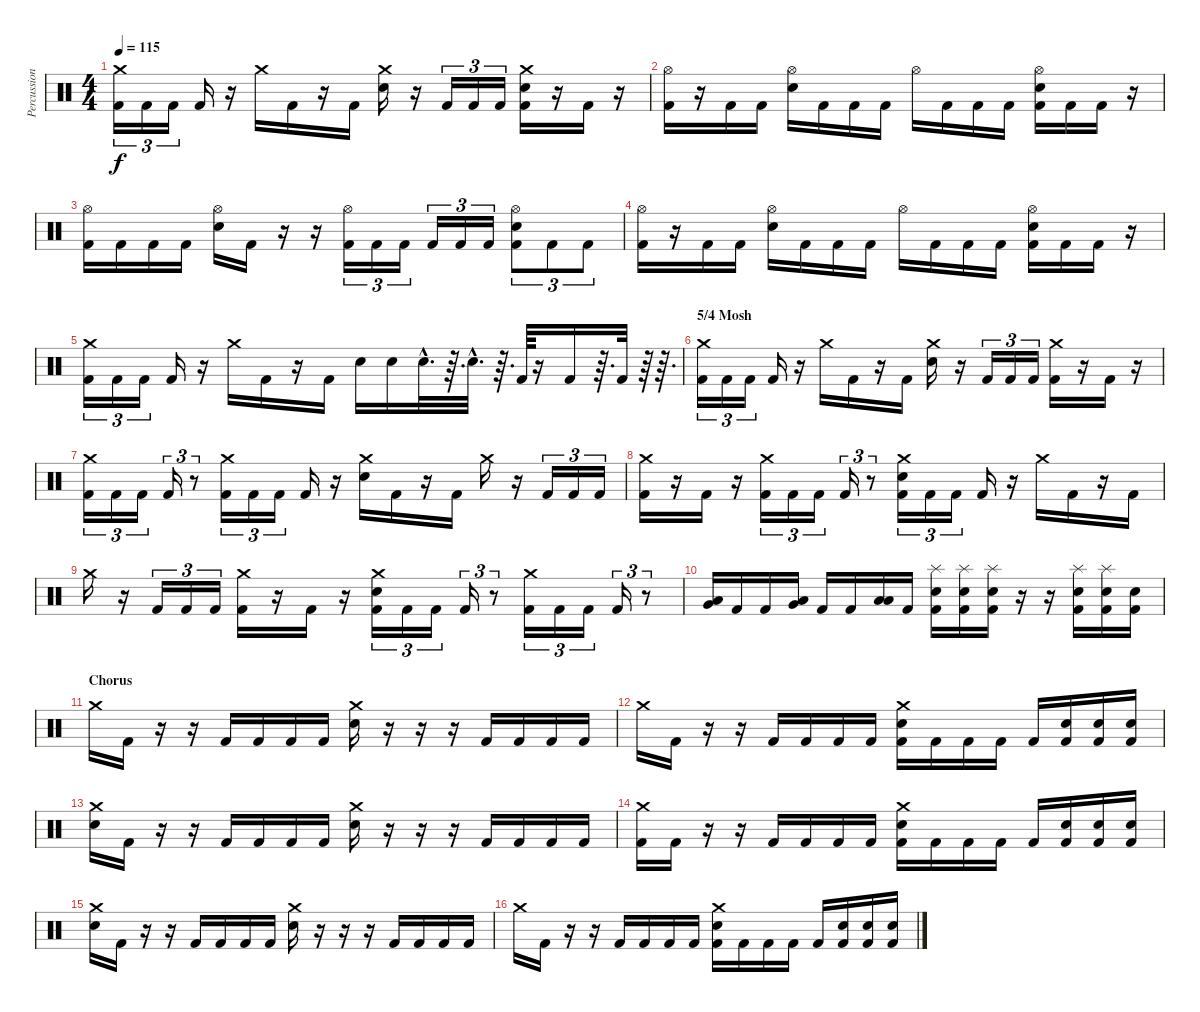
\track ("Percussion" "Percussion") {instrument percussion}
\staff {score}
\articulation defaults
\ts (4 4)
\tempo 115
\clef neutral
\ks c
("Crash medium (hit)" "Kick (hit) 2").16{tu (3 2) dy f} "Kick (hit) 2".16{tu (3 2)} "Kick (hit) 2".16{tu (3 2)} "Kick (hit) 2".16 r.16 "Crash medium (hit)".16 "Kick (hit) 2".16 r.16 "Kick (hit) 2".16 ("Crash medium (hit)" "Electric Snare (hit)").16 r.16 "Kick (hit) 2".16{tu (3 2)} "Kick (hit) 2".16{tu (3 2)} "Kick (hit) 2".16{tu (3 2)} ("Crash medium (hit)" "Electric Snare (hit)" "Kick (hit) 2").16 r.16 "Kick (hit) 2".16 r.16 |
("Hi-Hat (open)" "Kick (hit) 2").16 r.16 "Kick (hit) 2".16 "Kick (hit) 2".16 ("Hi-Hat (open)" "Electric Snare (hit)").16 "Kick (hit) 2".16 "Kick (hit) 2".16 "Kick (hit) 2".16 "Hi-Hat (open)".16 "Kick (hit) 2".16 "Kick (hit) 2".16 "Kick (hit) 2".16 ("Hi-Hat (open)" "Electric Snare (hit)" "Kick (hit) 2").16 "Kick (hit) 2".16 "Kick (hit) 2".16 r.16 |
("Hi-Hat (open)" "Kick (hit) 2").16 "Kick (hit) 2".16 "Kick (hit) 2".16 "Kick (hit) 2".16 ("Hi-Hat (open)" "Electric Snare (hit)").16 "Kick (hit) 2".16 r.16 r.16 ("Hi-Hat (open)" "Kick (hit) 2").16{tu (3 2)} "Kick (hit) 2".16{tu (3 2)} "Kick (hit) 2".16{tu (3 2)} "Kick (hit) 2".16{tu (3 2)} "Kick (hit) 2".16{tu (3 2)} "Kick (hit) 2".16{tu (3 2)} ("Hi-Hat (open)" "Electric Snare (hit)" "Kick (hit) 2").8{tu (3 2)} "Kick (hit) 2".8{tu (3 2)} "Kick (hit) 2".8{tu (3 2)} |
("Hi-Hat (open)" "Kick (hit) 2").16 r.16 "Kick (hit) 2".16 "Kick (hit) 2".16 ("Hi-Hat (open)" "Electric Snare (hit)").16 "Kick (hit) 2".16 "Kick (hit) 2".16 "Kick (hit) 2".16 "Hi-Hat (open)".16 "Kick (hit) 2".16 "Kick (hit) 2".16 "Kick (hit) 2".16 ("Hi-Hat (open)" "Electric Snare (hit)" "Kick (hit) 2").16 "Kick (hit) 2".16 "Kick (hit) 2".16 r.16 |
("Crash medium (hit)" "Kick (hit) 2").16{tu (3 2)} "Kick (hit) 2".16{tu (3 2)} "Kick (hit) 2".16{tu (3 2)} "Kick (hit) 2".16 r.16 "Crash medium (hit)".16 "Kick (hit) 2".16 r.16 "Kick (hit) 2".16 "Electric Snare (hit)".16 "Electric Snare (hit)".16 "Electric Snare (hit)"{hac}.32{d} r.64{d} "Electric Snare (hit)"{hac}.32{d} r.64{d} "Kick (hit) 2".64 r.16 "Kick (hit) 2".16 r.64{d} "Kick (hit) 2".32 r.64 r.64{d} |
\section ("" "5/4 Mosh")
("Crash medium (hit)" "Kick (hit) 2").16{tu (3 2)} "Kick (hit) 2".16{tu (3 2)} "Kick (hit) 2".16{tu (3 2)} "Kick (hit) 2".16 r.16 "Crash medium (hit)".16 "Kick (hit) 2".16 r.16 "Kick (hit) 2".16 ("Crash medium (hit)" "Electric Snare (hit)").16 r.16 "Kick (hit) 2".16{tu (3 2)} "Kick (hit) 2".16{tu (3 2)} "Kick (hit) 2".16{tu (3 2)} ("Crash medium (hit)" "Kick (hit) 2").16 r.16 "Kick (hit) 2".16 r.16 |
("Crash medium (hit)" "Kick (hit) 2").16{tu (3 2)} "Kick (hit) 2".16{tu (3 2)} "Kick (hit) 2".16{tu (3 2)} "Kick (hit) 2".16{tu (3 2)} r.8{tu (3 2)} ("Crash medium (hit)" "Kick (hit) 2").16{tu (3 2)} "Kick (hit) 2".16{tu (3 2)} "Kick (hit) 2".16{tu (3 2)} "Kick (hit) 2".16 r.16 ("Crash medium (hit)" "Electric Snare (hit)").16 "Kick (hit) 2".16 r.16 "Kick (hit) 2".16 "Crash medium (hit)".16 r.16 "Kick (hit) 2".16{tu (3 2)} "Kick (hit) 2".16{tu (3 2)} "Kick (hit) 2".16{tu (3 2)} |
("Crash medium (hit)" "Kick (hit) 2").16 r.16 "Kick (hit) 2".16 r.16 ("Crash medium (hit)" "Kick (hit) 2").16{tu (3 2)} "Kick (hit) 2".16{tu (3 2)} "Kick (hit) 2".16{tu (3 2)} "Kick (hit) 2".16{tu (3 2)} r.8{tu (3 2)} ("Crash medium (hit)" "Electric Snare (hit)" "Kick (hit) 2").16{tu (3 2)} "Kick (hit) 2".16{tu (3 2)} "Kick (hit) 2".16{tu (3 2)} "Kick (hit) 2".16 r.16 "Crash medium (hit)".16 "Kick (hit) 2".16 r.16 "Kick (hit) 2".16 |
"Crash medium (hit)".16 r.16 "Kick (hit) 2".16{tu (3 2)} "Kick (hit) 2".16{tu (3 2)} "Kick (hit) 2".16{tu (3 2)} ("Crash medium (hit)" "Kick (hit) 2").16 r.16 "Kick (hit) 2".16 r.16 ("Crash medium (hit)" "Electric Snare (hit)" "Kick (hit) 2").16{tu (3 2)} "Kick (hit) 2".16{tu (3 2)} "Kick (hit) 2".16{tu (3 2)} "Kick (hit) 2".16{tu (3 2)} r.8{tu (3 2)} ("Crash medium (hit)" "Kick (hit) 2").16{tu (3 2)} "Kick (hit) 2".16{tu (3 2)} "Kick (hit) 2".16{tu (3 2)} "Kick (hit) 2".16{tu (3 2)} r.8{tu (3 2)} |
("Low Tom (hit)" "Very Low Tom (hit)").16 "Kick (hit) 2".16 "Kick (hit) 2".16 ("Very Low Tom (hit)" "Low Floor Tom (hit)").16 "Kick (hit) 2".16 "Kick (hit) 2".16 ("Low Floor Tom (hit)" "Low Floor Tom (hit)").16 "Kick (hit) 2".16 ("Splash (hit)" "Electric Snare (hit)" "Kick (hit) 2").16 ("Splash (hit)" "Electric Snare (hit)" "Kick (hit) 2").16 ("Splash (hit)" "Electric Snare (hit)" "Kick (hit) 2").16 r.16 r.16 ("Splash (hit)" "Electric Snare (hit)" "Kick (hit) 2").16 ("Splash (hit)" "Electric Snare (hit)" "Kick (hit) 2").16 ("Electric Snare (hit)" "Kick (hit) 2").16 |
\section ("" "Chorus")
"Crash medium (hit)".16 "Kick (hit) 2".16 r.16 r.16 "Kick (hit) 2".16 "Kick (hit) 2".16 "Kick (hit) 2".16 "Kick (hit) 2".16 ("Crash medium (hit)" "Electric Snare (hit)").16 r.16 r.16 r.16 "Kick (hit) 2".16 "Kick (hit) 2".16 "Kick (hit) 2".16 "Kick (hit) 2".16 |
"Crash medium (hit)".16 "Kick (hit) 2".16 r.16 r.16 "Kick (hit) 2".16 "Kick (hit) 2".16 "Kick (hit) 2".16 "Kick (hit) 2".16 ("Crash medium (hit)" "Electric Snare (hit)" "Kick (hit) 2").16 "Kick (hit) 2".16 "Kick (hit) 2".16 "Kick (hit) 2".16 "Kick (hit) 2".16 ("Electric Snare (hit)" "Kick (hit) 2").16 ("Electric Snare (hit)" "Kick (hit) 2").16 ("Electric Snare (hit)" "Kick (hit) 2").16 |
("Crash medium (hit)" "Electric Snare (hit)").16 "Kick (hit) 2".16 r.16 r.16 "Kick (hit) 2".16 "Kick (hit) 2".16 "Kick (hit) 2".16 "Kick (hit) 2".16 ("Crash medium (hit)" "Electric Snare (hit)").16 r.16 r.16 r.16 "Kick (hit) 2".16 "Kick (hit) 2".16 "Kick (hit) 2".16 "Kick (hit) 2".16 |
("Crash medium (hit)" "Kick (hit) 2").16 "Kick (hit) 2".16 r.16 r.16 "Kick (hit) 2".16 "Kick (hit) 2".16 "Kick (hit) 2".16 "Kick (hit) 2".16 ("Crash medium (hit)" "Electric Snare (hit)" "Kick (hit) 2").16 "Kick (hit) 2".16 "Kick (hit) 2".16 "Kick (hit) 2".16 "Kick (hit) 2".16 ("Electric Snare (hit)" "Kick (hit) 2").16 ("Electric Snare (hit)" "Kick (hit) 2").16 ("Electric Snare (hit)" "Kick (hit) 2").16 |
("Crash medium (hit)" "Electric Snare (hit)").16 "Kick (hit) 2".16 r.16 r.16 "Kick (hit) 2".16 "Kick (hit) 2".16 "Kick (hit) 2".16 "Kick (hit) 2".16 ("Crash medium (hit)" "Electric Snare (hit)").16 r.16 r.16 r.16 "Kick (hit) 2".16 "Kick (hit) 2".16 "Kick (hit) 2".16 "Kick (hit) 2".16 |
"Crash medium (hit)".16 "Kick (hit) 2".16 r.16 r.16 "Kick (hit) 2".16 "Kick (hit) 2".16 "Kick (hit) 2".16 "Kick (hit) 2".16 ("Crash medium (hit)" "Electric Snare (hit)" "Kick (hit) 2").16 "Kick (hit) 2".16 "Kick (hit) 2".16 "Kick (hit) 2".16 "Kick (hit) 2".16 ("Electric Snare (hit)" "Kick (hit) 2").16 ("Electric Snare (hit)" "Kick (hit) 2").16 ("Electric Snare (hit)" "Kick (hit) 2").16
